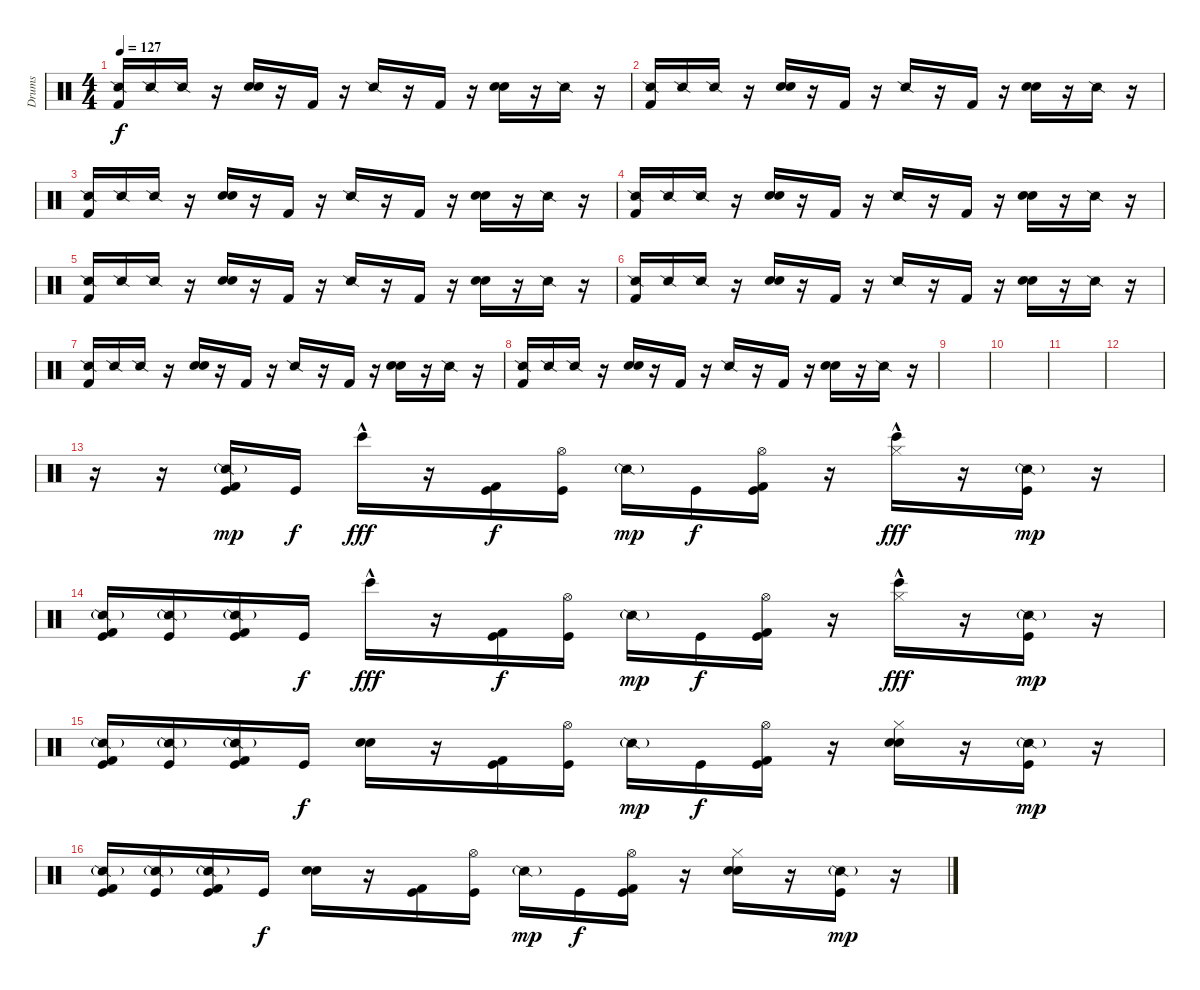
\track ("Drums" "Drums") {instrument percussion}
\staff {score}
\articulation defaults
\ts (4 4)
\tempo 127
\clef neutral
\ks c
("Snare (side stick) 2" "Kick (hit) 2").16{dy f} "Snare (side stick) 2".16 "Snare (side stick) 2".16 r.16 ("Snare (hit) 2" "Hand Clap (hit)").16 r.16 "Kick (hit) 2".16 r.16 "Snare (side stick) 2".16 r.16 "Kick (hit) 2".16 r.16 ("Snare (hit) 2" "Hand Clap (hit)").16 r.16 "Snare (side stick) 2".16 r.16 |
("Snare (side stick) 2" "Kick (hit) 2").16 "Snare (side stick) 2".16 "Snare (side stick) 2".16 r.16 ("Snare (hit) 2" "Hand Clap (hit)").16 r.16 "Kick (hit) 2".16 r.16 "Snare (side stick) 2".16 r.16 "Kick (hit) 2".16 r.16 ("Snare (hit) 2" "Hand Clap (hit)").16 r.16 "Snare (side stick) 2".16 r.16 |
("Snare (side stick) 2" "Kick (hit) 2").16 "Snare (side stick) 2".16 "Snare (side stick) 2".16 r.16 ("Snare (hit) 2" "Hand Clap (hit)").16 r.16 "Kick (hit) 2".16 r.16 "Snare (side stick) 2".16 r.16 "Kick (hit) 2".16 r.16 ("Snare (hit) 2" "Hand Clap (hit)").16 r.16 "Snare (side stick) 2".16 r.16 |
("Snare (side stick) 2" "Kick (hit) 2").16 "Snare (side stick) 2".16 "Snare (side stick) 2".16 r.16 ("Snare (hit) 2" "Hand Clap (hit)").16 r.16 "Kick (hit) 2".16 r.16 "Snare (side stick) 2".16 r.16 "Kick (hit) 2".16 r.16 ("Snare (hit) 2" "Hand Clap (hit)").16 r.16 "Snare (side stick) 2".16 r.16 |
("Snare (side stick) 2" "Kick (hit) 2").16 "Snare (side stick) 2".16 "Snare (side stick) 2".16 r.16 ("Snare (hit) 2" "Hand Clap (hit)").16 r.16 "Kick (hit) 2".16 r.16 "Snare (side stick) 2".16 r.16 "Kick (hit) 2".16 r.16 ("Snare (hit) 2" "Hand Clap (hit)").16 r.16 "Snare (side stick) 2".16 r.16 |
("Snare (side stick) 2" "Kick (hit) 2").16 "Snare (side stick) 2".16 "Snare (side stick) 2".16 r.16 ("Snare (hit) 2" "Hand Clap (hit)").16 r.16 "Kick (hit) 2".16 r.16 "Snare (side stick) 2".16 r.16 "Kick (hit) 2".16 r.16 ("Snare (hit) 2" "Hand Clap (hit)").16 r.16 "Snare (side stick) 2".16 r.16 |
("Snare (side stick) 2" "Kick (hit) 2").16 "Snare (side stick) 2".16 "Snare (side stick) 2".16 r.16 ("Snare (hit) 2" "Hand Clap (hit)").16 r.16 "Kick (hit) 2".16 r.16 "Snare (side stick) 2".16 r.16 "Kick (hit) 2".16 r.16 ("Snare (hit) 2" "Hand Clap (hit)").16 r.16 "Snare (side stick) 2".16 r.16 |
("Snare (side stick) 2" "Kick (hit) 2").16 "Snare (side stick) 2".16 "Snare (side stick) 2".16 r.16 ("Snare (hit) 2" "Hand Clap (hit)").16 r.16 "Kick (hit) 2".16 r.16 "Snare (side stick) 2".16 r.16 "Kick (hit) 2".16 r.16 ("Snare (hit) 2" "Hand Clap (hit)").16 r.16 "Snare (side stick) 2".16 r.16 |
|
|
|
|
r.16 r.16 ("Snare (side stick) 2"{g} "Kick (hit) 2" "Kick (hit)").16{dy mp} "Kick (hit)".16{dy f} "Bongo High (hit)"{hac}.16{dy fff} r.16 ("Kick (hit) 2" "Kick (hit)").16{dy f} ("Hi-Hat (open)" "Kick (hit)").16 "Snare (side stick) 2"{g}.16{dy mp} "Kick (hit)".16{dy f} ("Hi-Hat (open)" "Kick (hit) 2" "Kick (hit)").16 r.16 ("Hi-Hat (closed)" "Bongo High (hit)"{hac}).16{dy fff} r.16 ("Snare (side stick) 2"{g} "Kick (hit)").16{dy mp} r.16 |
("Snare (side stick) 2"{g} "Kick (hit) 2" "Kick (hit)").16 ("Snare (side stick) 2"{g} "Kick (hit)").16 ("Snare (side stick) 2"{g} "Kick (hit) 2" "Kick (hit)").16 "Kick (hit)".16{dy f} "Bongo High (hit)"{hac}.16{dy fff} r.16 ("Kick (hit) 2" "Kick (hit)").16{dy f} ("Hi-Hat (open)" "Kick (hit)").16 "Snare (side stick) 2"{g}.16{dy mp} "Kick (hit)".16{dy f} ("Hi-Hat (open)" "Kick (hit) 2" "Kick (hit)").16 r.16 ("Hi-Hat (closed)" "Bongo High (hit)"{hac}).16{dy fff} r.16 ("Snare (side stick) 2"{g} "Kick (hit)").16{dy mp} r.16 |
("Snare (side stick) 2"{g} "Kick (hit) 2" "Kick (hit)").16 ("Snare (side stick) 2"{g} "Kick (hit)").16 ("Snare (side stick) 2"{g} "Kick (hit) 2" "Kick (hit)").16 "Kick (hit)".16{dy f} ("Snare (hit) 2" "Hand Clap (hit)").16 r.16 ("Kick (hit) 2" "Kick (hit)").16 ("Hi-Hat (open)" "Kick (hit)").16 "Snare (side stick) 2"{g}.16{dy mp} "Kick (hit)".16{dy f} ("Hi-Hat (open)" "Kick (hit) 2" "Kick (hit)").16 r.16 ("Hi-Hat (closed)" "Snare (hit) 2" "Hand Clap (hit)").16 r.16 ("Snare (side stick) 2"{g} "Kick (hit)").16{dy mp} r.16 |
("Snare (side stick) 2"{g} "Kick (hit) 2" "Kick (hit)").16 ("Snare (side stick) 2"{g} "Kick (hit)").16 ("Snare (side stick) 2"{g} "Kick (hit) 2" "Kick (hit)").16 "Kick (hit)".16{dy f} ("Snare (hit) 2" "Hand Clap (hit)").16 r.16 ("Kick (hit) 2" "Kick (hit)").16 ("Hi-Hat (open)" "Kick (hit)").16 "Snare (side stick) 2"{g}.16{dy mp} "Kick (hit)".16{dy f} ("Hi-Hat (open)" "Kick (hit) 2" "Kick (hit)").16 r.16 ("Hi-Hat (closed)" "Snare (hit) 2" "Hand Clap (hit)").16 r.16 ("Snare (side stick) 2"{g} "Kick (hit)").16{dy mp} r.16
